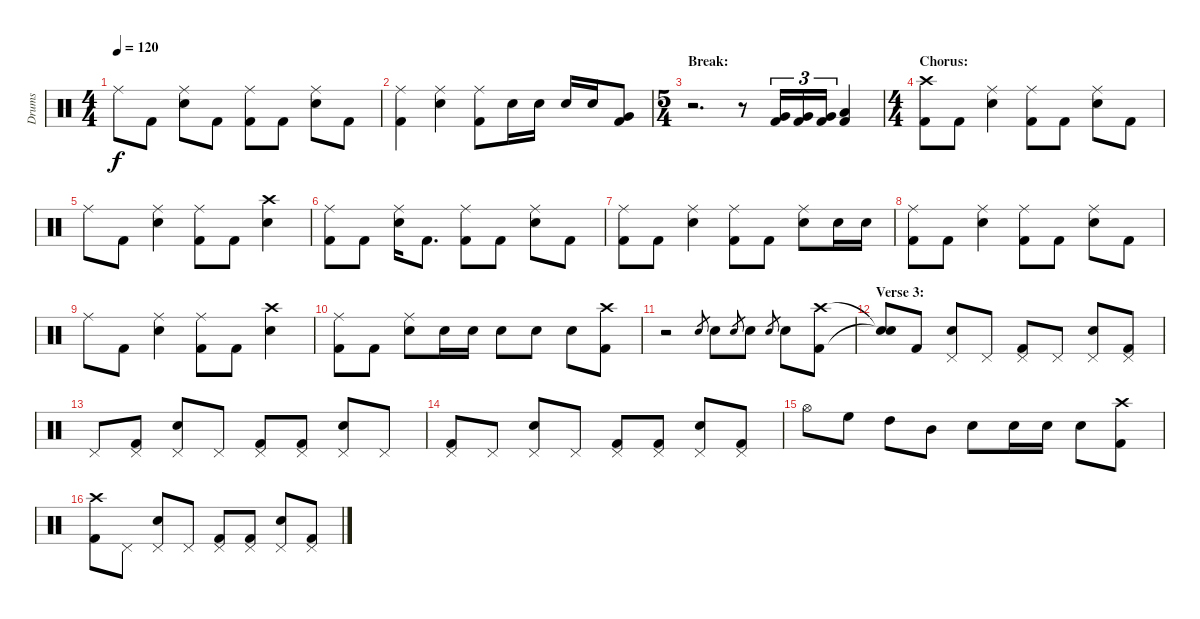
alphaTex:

\track ("Drums" "Drums") {instrument percussion}
\staff {score}
\articulation defaults
\ts (4 4)
\tempo 120
\clef neutral
\ks c "Ride (middle)".8{dy f} "Kick (hit) 2".8
("Ride (middle)" "Electric Snare (hit)").8 "Kick (hit) 2".8 ("Ride (middle)" "Kick (hit) 2").8 "Kick (hit) 2".8 ("Ride (middle)" "Electric Snare (hit)").8 "Kick (hit) 2".8 |
("Ride (middle)" "Kick (hit) 2").4 ("Ride (middle)" "Electric Snare (hit)").4 ("Ride (middle)" "Kick (hit) 2").8 "Electric Snare (hit)".16 "Electric Snare (hit)".16 "Electric Snare (hit)".16 "Electric Snare (hit)".16 ("Very Low Tom (hit)" "Kick (hit) 2").8 |
\ts (5 4)
\section ("" "Break:")
r.2{d} r.8 ("Very Low Tom (hit)" "Kick (hit) 2").16{tu (3 2)} ("Very Low Tom (hit)" "Kick (hit) 2").16{tu (3 2)} ("Very Low Tom (hit)" "Kick (hit) 2").16{tu (3 2)} ("Low Floor Tom (hit)" "Kick (hit) 2").4 |
\ts (4 4)
\section ("" "Chorus:")
("Crash high (hit)" "Kick (hit) 2").8 "Kick (hit) 2".8 ("Ride (middle)" "Electric Snare (hit)").4 ("Ride (middle)" "Kick (hit) 2").8 "Kick (hit) 2".8 ("Ride (middle)" "Electric Snare (hit)").8 "Kick (hit) 2".8 |
"Ride (middle)".8 "Kick (hit) 2".8 ("Ride (middle)" "Electric Snare (hit)").4 ("Ride (middle)" "Kick (hit) 2").8 "Kick (hit) 2".8 ("Crash high (hit)" "Electric Snare (hit)").4 |
("Ride (middle)" "Kick (hit) 2").8 "Kick (hit) 2".8 ("Ride (middle)" "Electric Snare (hit)").16 "Kick (hit) 2".8{d} ("Ride (middle)" "Kick (hit) 2").8 "Kick (hit) 2".8 ("Ride (middle)" "Electric Snare (hit)").8 "Kick (hit) 2".8 |
("Ride (middle)" "Kick (hit) 2").8 "Kick (hit) 2".8 ("Ride (middle)" "Electric Snare (hit)").4 ("Ride (middle)" "Kick (hit) 2").8 "Kick (hit) 2".8 ("Ride (middle)" "Electric Snare (hit)").8 "Electric Snare (hit)".16 "Electric Snare (hit)".16 |
("Ride (middle)" "Kick (hit) 2").8 "Kick (hit) 2".8 ("Ride (middle)" "Electric Snare (hit)").4 ("Ride (middle)" "Kick (hit) 2").8 "Kick (hit) 2".8 ("Ride (middle)" "Electric Snare (hit)").8 "Kick (hit) 2".8 |
"Ride (middle)".8 "Kick (hit) 2".8 ("Ride (middle)" "Electric Snare (hit)").4 ("Ride (middle)" "Kick (hit) 2").8 "Kick (hit) 2".8 ("Crash high (hit)" "Electric Snare (hit)").4 |
("Ride (middle)" "Kick (hit) 2").8 "Kick (hit) 2".8 ("Ride (middle)" "Electric Snare (hit)").8 "Electric Snare (hit)".16 "Electric Snare (hit)".16 "Electric Snare (hit)".8 "Electric Snare (hit)".8 "Electric Snare (hit)".8 ("Crash high (hit)" "Kick (hit) 2").8 |
r.2 "Electric Snare (hit)".8{gr} "Electric Snare (hit)".8 "Electric Snare (hit)".8{gr} "Electric Snare (hit)".8 "Electric Snare (hit)".8{gr} "Electric Snare (hit)".8 ("Crash high (hit)" "Kick (hit) 2").8 |
\section ("" "Verse 3:")
("Snare (hit)"{t} "Snare (hit)"{t}).8 "Kick (hit) 2".8 ("Pedal Hi-Hat (hit)" "Electric Snare (hit)").8 "Pedal Hi-Hat (hit)".8 ("Pedal Hi-Hat (hit)" "Kick (hit) 2").8 "Pedal Hi-Hat (hit)".8 ("Pedal Hi-Hat (hit)" "Electric Snare (hit)").8 ("Pedal Hi-Hat (hit)" "Kick (hit) 2").8 |
"Pedal Hi-Hat (hit)".8 ("Pedal Hi-Hat (hit)" "Kick (hit) 2").8 ("Pedal Hi-Hat (hit)" "Electric Snare (hit)").8 "Pedal Hi-Hat (hit)".8 ("Pedal Hi-Hat (hit)" "Kick (hit) 2").8 ("Pedal Hi-Hat (hit)" "Kick (hit) 2").8 ("Pedal Hi-Hat (hit)" "Electric Snare (hit)").8 "Pedal Hi-Hat (hit)".8 |
("Pedal Hi-Hat (hit)" "Kick (hit) 2").8 "Pedal Hi-Hat (hit)".8 ("Pedal Hi-Hat (hit)" "Electric Snare (hit)").8 "Pedal Hi-Hat (hit)".8 ("Pedal Hi-Hat (hit)" "Kick (hit) 2").8 ("Pedal Hi-Hat (hit)" "Kick (hit) 2").8 ("Pedal Hi-Hat (hit)" "Electric Snare (hit)").8 ("Pedal Hi-Hat (hit)" "Kick (hit) 2").8 |
"Hi-Hat (open)".8 "High Floor Tom (hit)".8 "High Tom (hit)".8 "Mid Tom (hit)".8 "Electric Snare (hit)".8 "Electric Snare (hit)".16 "Electric Snare (hit)".16 "Electric Snare (hit)".8 ("Crash high (hit)" "Kick (hit) 2").8 |
("Crash high (hit)" "Kick (hit) 2").8 "Pedal Hi-Hat (hit)".8 ("Pedal Hi-Hat (hit)" "Electric Snare (hit)").8 "Pedal Hi-Hat (hit)".8 ("Pedal Hi-Hat (hit)" "Kick (hit) 2").8 ("Pedal Hi-Hat (hit)" "Kick (hit) 2").8 ("Pedal Hi-Hat (hit)" "Electric Snare (hit)").8 ("Pedal Hi-Hat (hit)" "Kick (hit) 2").8
